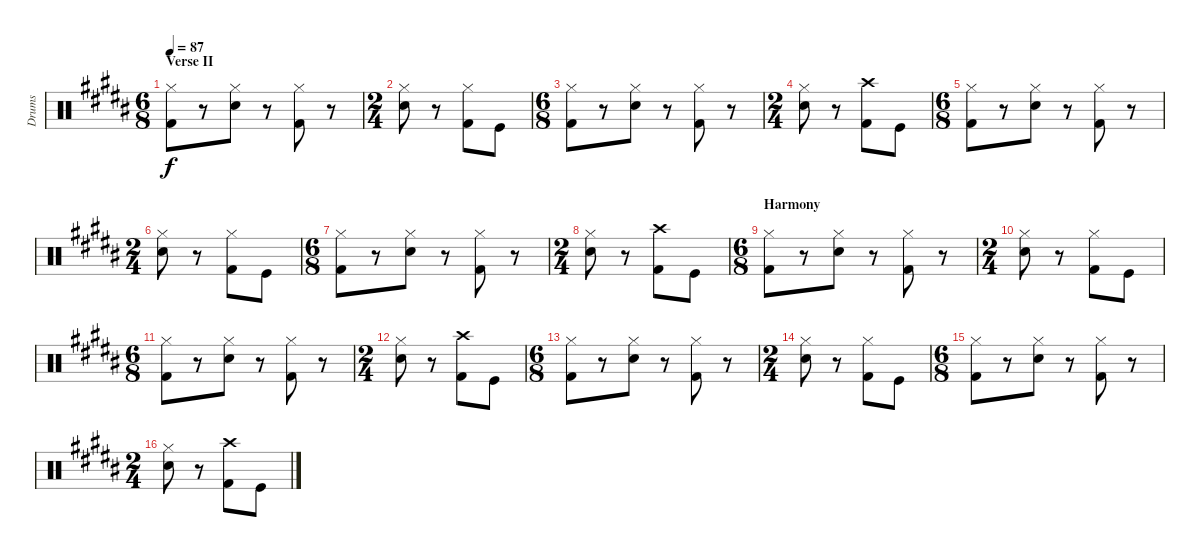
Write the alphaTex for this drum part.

\track ("Drums" "Drums") {instrument percussion}
\staff {score}
\articulation defaults
\ts (6 8)
\section ("" "Verse II")
\tempo 87
\clef neutral
\ks b
("Hi-Hat (closed)" "Kick (hit) 2").8{dy f} r.8 ("Hi-Hat (closed)" "Snare (hit) 2").8 r.8 ("Hi-Hat (closed)" "Kick (hit) 2").8 r.8 |
\ts (2 4)
("Hi-Hat (closed)" "Snare (hit) 2").8 r.8 ("Hi-Hat (closed)" "Kick (hit) 2").8 "Kick (hit)".8 |
\ts (6 8)
("Hi-Hat (closed)" "Kick (hit) 2").8 r.8 ("Hi-Hat (closed)" "Snare (hit) 2").8 r.8 ("Hi-Hat (closed)" "Kick (hit) 2").8 r.8 |
\ts (2 4)
("Hi-Hat (closed)" "Snare (hit) 2").8 r.8 ("Crash high (hit)" "Kick (hit) 2").8 "Kick (hit)".8 |
\ts (6 8)
("Hi-Hat (closed)" "Kick (hit) 2").8 r.8 ("Hi-Hat (closed)" "Snare (hit) 2").8 r.8 ("Hi-Hat (closed)" "Kick (hit) 2").8 r.8 |
\ts (2 4)
("Hi-Hat (closed)" "Snare (hit) 2").8 r.8 ("Hi-Hat (closed)" "Kick (hit) 2").8 "Kick (hit)".8 |
\ts (6 8)
("Hi-Hat (closed)" "Kick (hit) 2").8 r.8 ("Hi-Hat (closed)" "Snare (hit) 2").8 r.8 ("Hi-Hat (closed)" "Kick (hit) 2").8 r.8 |
\ts (2 4)
("Hi-Hat (closed)" "Snare (hit) 2").8 r.8 ("Crash high (hit)" "Kick (hit) 2").8 "Kick (hit)".8 |
\ts (6 8)
\section ("" "Harmony")
("Hi-Hat (closed)" "Kick (hit) 2").8 r.8 ("Hi-Hat (closed)" "Snare (hit) 2").8 r.8 ("Hi-Hat (closed)" "Kick (hit) 2").8 r.8 |
\ts (2 4)
("Hi-Hat (closed)" "Snare (hit) 2").8 r.8 ("Hi-Hat (closed)" "Kick (hit) 2").8 "Kick (hit)".8 |
\ts (6 8)
("Hi-Hat (closed)" "Kick (hit) 2").8 r.8 ("Hi-Hat (closed)" "Snare (hit) 2").8 r.8 ("Hi-Hat (closed)" "Kick (hit) 2").8 r.8 |
\ts (2 4)
("Hi-Hat (closed)" "Snare (hit) 2").8 r.8 ("Crash high (hit)" "Kick (hit) 2").8 "Kick (hit)".8 |
\ts (6 8)
("Hi-Hat (closed)" "Kick (hit) 2").8 r.8 ("Hi-Hat (closed)" "Snare (hit) 2").8 r.8 ("Hi-Hat (closed)" "Kick (hit) 2").8 r.8 |
\ts (2 4)
("Hi-Hat (closed)" "Snare (hit) 2").8 r.8 ("Hi-Hat (closed)" "Kick (hit) 2").8 "Kick (hit)".8 |
\ts (6 8)
("Hi-Hat (closed)" "Kick (hit) 2").8 r.8 ("Hi-Hat (closed)" "Snare (hit) 2").8 r.8 ("Hi-Hat (closed)" "Kick (hit) 2").8 r.8 |
\ts (2 4)
("Hi-Hat (closed)" "Snare (hit) 2").8 r.8 ("Crash high (hit)" "Kick (hit) 2").8 "Kick (hit)".8
